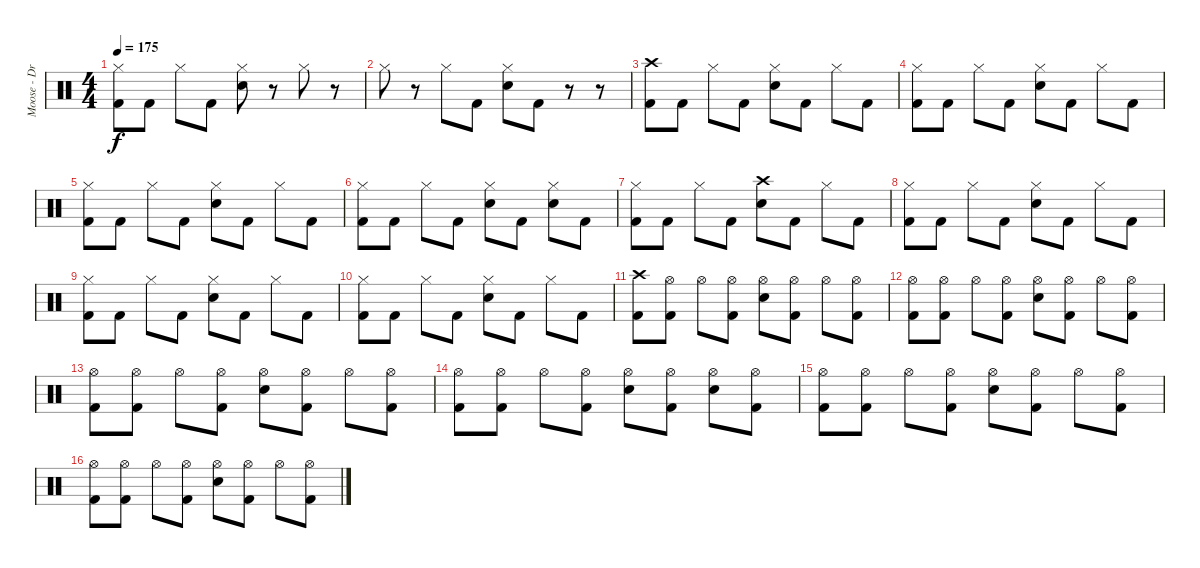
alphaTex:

\track ("Moose - Drums" "Moose - Dr") {instrument percussion}
\staff {score}
\articulation defaults
\ts (4 4)
\tempo 175
\clef neutral
\ks c
("Hi-Hat (closed)" "Kick (hit) 2").8{dy f} "Kick (hit) 2".8 "Hi-Hat (closed)".8 "Kick (hit) 2".8 ("Hi-Hat (closed)" "Electric Snare (hit)").8 r.8 "Hi-Hat (closed)".8 r.8 |
"Hi-Hat (closed)".8 r.8 "Hi-Hat (closed)".8 "Kick (hit) 2".8 ("Hi-Hat (closed)" "Electric Snare (hit)").8 "Kick (hit) 2".8 r.8 r.8 |
("Crash high (hit)" "Kick (hit) 2").8 "Kick (hit) 2".8 "Hi-Hat (closed)".8 "Kick (hit) 2".8 ("Hi-Hat (closed)" "Electric Snare (hit)").8 "Kick (hit) 2".8 "Hi-Hat (closed)".8 "Kick (hit) 2".8 |
("Hi-Hat (closed)" "Kick (hit) 2").8 "Kick (hit) 2".8 "Hi-Hat (closed)".8 "Kick (hit) 2".8 ("Hi-Hat (closed)" "Electric Snare (hit)").8 "Kick (hit) 2".8 "Hi-Hat (closed)".8 "Kick (hit) 2".8 |
("Hi-Hat (closed)" "Kick (hit) 2").8 "Kick (hit) 2".8 "Hi-Hat (closed)".8 "Kick (hit) 2".8 ("Hi-Hat (closed)" "Electric Snare (hit)").8 "Kick (hit) 2".8 "Hi-Hat (closed)".8 "Kick (hit) 2".8 |
("Hi-Hat (closed)" "Kick (hit) 2").8 "Kick (hit) 2".8 "Hi-Hat (closed)".8 "Kick (hit) 2".8 ("Hi-Hat (closed)" "Electric Snare (hit)").8 "Kick (hit) 2".8 ("Hi-Hat (closed)" "Electric Snare (hit)").8 "Kick (hit) 2".8 |
("Hi-Hat (closed)" "Kick (hit) 2").8 "Kick (hit) 2".8 "Hi-Hat (closed)".8 "Kick (hit) 2".8 ("Crash high (hit)" "Electric Snare (hit)").8 "Kick (hit) 2".8 "Hi-Hat (closed)".8 "Kick (hit) 2".8 |
("Hi-Hat (closed)" "Kick (hit) 2").8 "Kick (hit) 2".8 "Hi-Hat (closed)".8 "Kick (hit) 2".8 ("Hi-Hat (closed)" "Electric Snare (hit)").8 "Kick (hit) 2".8 "Hi-Hat (closed)".8 "Kick (hit) 2".8 |
("Hi-Hat (closed)" "Kick (hit) 2").8 "Kick (hit) 2".8 "Hi-Hat (closed)".8 "Kick (hit) 2".8 ("Hi-Hat (closed)" "Electric Snare (hit)").8 "Kick (hit) 2".8 "Hi-Hat (closed)".8 "Kick (hit) 2".8 |
("Hi-Hat (closed)" "Kick (hit) 2").8 "Kick (hit) 2".8 "Hi-Hat (closed)".8 "Kick (hit) 2".8 ("Hi-Hat (closed)" "Electric Snare (hit)").8 "Kick (hit) 2".8 "Hi-Hat (closed)".8 "Kick (hit) 2".8 |
("Crash high (hit)" "Kick (hit) 2").8 ("Hi-Hat (open)" "Kick (hit) 2").8 "Hi-Hat (open)".8 ("Hi-Hat (open)" "Kick (hit) 2").8 ("Hi-Hat (open)" "Electric Snare (hit)").8 ("Hi-Hat (open)" "Kick (hit) 2").8 "Hi-Hat (open)".8 ("Hi-Hat (open)" "Kick (hit) 2").8 |
("Hi-Hat (open)" "Kick (hit) 2").8 ("Hi-Hat (open)" "Kick (hit) 2").8 "Hi-Hat (open)".8 ("Hi-Hat (open)" "Kick (hit) 2").8 ("Hi-Hat (open)" "Electric Snare (hit)").8 ("Hi-Hat (open)" "Kick (hit) 2").8 "Hi-Hat (open)".8 ("Hi-Hat (open)" "Kick (hit) 2").8 |
("Hi-Hat (open)" "Kick (hit) 2").8 ("Hi-Hat (open)" "Kick (hit) 2").8 "Hi-Hat (open)".8 ("Hi-Hat (open)" "Kick (hit) 2").8 ("Hi-Hat (open)" "Electric Snare (hit)").8 ("Hi-Hat (open)" "Kick (hit) 2").8 "Hi-Hat (open)".8 ("Hi-Hat (open)" "Kick (hit) 2").8 |
("Hi-Hat (open)" "Kick (hit) 2").8 ("Hi-Hat (open)" "Kick (hit) 2").8 "Hi-Hat (open)".8 ("Hi-Hat (open)" "Kick (hit) 2").8 ("Hi-Hat (open)" "Electric Snare (hit)").8 ("Hi-Hat (open)" "Kick (hit) 2").8 ("Hi-Hat (open)" "Electric Snare (hit)").8 ("Hi-Hat (open)" "Kick (hit) 2").8 |
("Hi-Hat (open)" "Kick (hit) 2").8 ("Hi-Hat (open)" "Kick (hit) 2").8 "Hi-Hat (open)".8 ("Hi-Hat (open)" "Kick (hit) 2").8 ("Hi-Hat (open)" "Electric Snare (hit)").8 ("Hi-Hat (open)" "Kick (hit) 2").8 "Hi-Hat (open)".8 ("Hi-Hat (open)" "Kick (hit) 2").8 |
("Hi-Hat (open)" "Kick (hit) 2").8 ("Hi-Hat (open)" "Kick (hit) 2").8 "Hi-Hat (open)".8 ("Hi-Hat (open)" "Kick (hit) 2").8 ("Hi-Hat (open)" "Electric Snare (hit)").8 ("Hi-Hat (open)" "Kick (hit) 2").8 "Hi-Hat (open)".8 ("Hi-Hat (open)" "Kick (hit) 2").8
